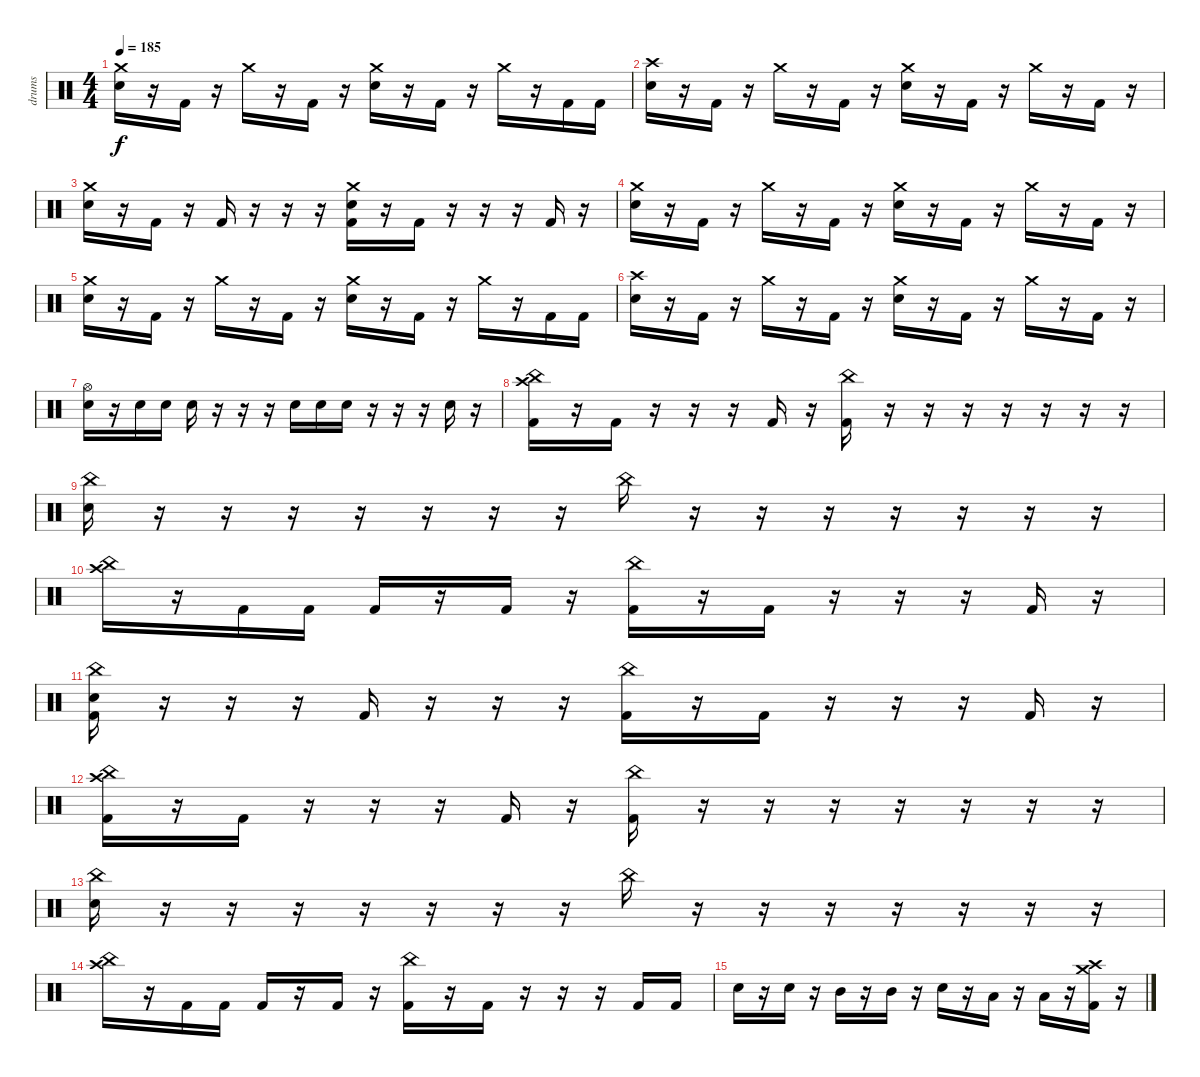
\track ("drums" "drums") {instrument percussion}
\staff {score}
\articulation defaults
\ts (4 4)
\tempo 185
\clef neutral
\ks c
("Crash medium (hit)" "Electric Snare (hit)").16{dy f} r.16 "Kick (hit) 2".16 r.16 "Crash medium (hit)".16 r.16 "Kick (hit) 2".16 r.16 ("Crash medium (hit)" "Electric Snare (hit)").16 r.16 "Kick (hit) 2".16 r.16 "Crash medium (hit)".16 r.16 "Kick (hit) 2".16 "Kick (hit) 2".16 |
("Crash high (hit)" "Electric Snare (hit)").16 r.16 "Kick (hit) 2".16 r.16 "Crash medium (hit)".16 r.16 "Kick (hit) 2".16 r.16 ("Crash medium (hit)" "Electric Snare (hit)").16 r.16 "Kick (hit) 2".16 r.16 "Crash medium (hit)".16 r.16 "Kick (hit) 2".16 r.16 |
("Crash medium (hit)" "Electric Snare (hit)").16 r.16 "Kick (hit) 2".16 r.16 "Kick (hit) 2".16 r.16 r.16 r.16 ("Crash medium (hit)" "Electric Snare (hit)" "Kick (hit) 2").16 r.16 "Kick (hit) 2".16 r.16 r.16 r.16 "Kick (hit) 2".16 r.16 |
("Crash medium (hit)" "Electric Snare (hit)").16 r.16 "Kick (hit) 2".16 r.16 "Crash medium (hit)".16 r.16 "Kick (hit) 2".16 r.16 ("Crash medium (hit)" "Electric Snare (hit)").16 r.16 "Kick (hit) 2".16 r.16 "Crash medium (hit)".16 r.16 "Kick (hit) 2".16 r.16 |
("Crash medium (hit)" "Electric Snare (hit)").16 r.16 "Kick (hit) 2".16 r.16 "Crash medium (hit)".16 r.16 "Kick (hit) 2".16 r.16 ("Crash medium (hit)" "Electric Snare (hit)").16 r.16 "Kick (hit) 2".16 r.16 "Crash medium (hit)".16 r.16 "Kick (hit) 2".16 "Kick (hit) 2".16 |
("Crash high (hit)" "Electric Snare (hit)").16 r.16 "Kick (hit) 2".16 r.16 "Crash medium (hit)".16 r.16 "Kick (hit) 2".16 r.16 ("Crash medium (hit)" "Electric Snare (hit)").16 r.16 "Kick (hit) 2".16 r.16 "Crash medium (hit)".16 r.16 "Kick (hit) 2".16 r.16 |
("Hi-Hat (open)" "Electric Snare (hit)").16 r.16 "Electric Snare (hit)".16 "Electric Snare (hit)".16 "Electric Snare (hit)".16 r.16 r.16 r.16 "Electric Snare (hit)".16 "Electric Snare (hit)".16 "Electric Snare (hit)".16 r.16 r.16 r.16 "Electric Snare (hit)".16 r.16 |
("China (hit)" "Crash high (hit)" "Kick (hit) 2").16 r.16 "Kick (hit) 2".16 r.16 r.16 r.16 "Kick (hit) 2".16 r.16 ("China (hit)" "Kick (hit) 2").16 r.16 r.16 r.16 r.16 r.16 r.16 r.16 |
("China (hit)" "Electric Snare (hit)").16 r.16 r.16 r.16 r.16 r.16 r.16 r.16 "China (hit)".16 r.16 r.16 r.16 r.16 r.16 r.16 r.16 |
("China (hit)" "Crash high (hit)").16 r.16 "Kick (hit) 2".16 "Kick (hit) 2".16 "Kick (hit) 2".16 r.16 "Kick (hit) 2".16 r.16 ("China (hit)" "Kick (hit) 2").16 r.16 "Kick (hit) 2".16 r.16 r.16 r.16 "Kick (hit) 2".16 r.16 |
("China (hit)" "Electric Snare (hit)" "Kick (hit) 2").16 r.16 r.16 r.16 "Kick (hit) 2".16 r.16 r.16 r.16 ("China (hit)" "Kick (hit) 2").16 r.16 "Kick (hit) 2".16 r.16 r.16 r.16 "Kick (hit) 2".16 r.16 |
("China (hit)" "Crash high (hit)" "Kick (hit) 2").16 r.16 "Kick (hit) 2".16 r.16 r.16 r.16 "Kick (hit) 2".16 r.16 ("China (hit)" "Kick (hit) 2").16 r.16 r.16 r.16 r.16 r.16 r.16 r.16 |
("China (hit)" "Electric Snare (hit)").16 r.16 r.16 r.16 r.16 r.16 r.16 r.16 "China (hit)".16 r.16 r.16 r.16 r.16 r.16 r.16 r.16 |
("China (hit)" "Crash high (hit)").16 r.16 "Kick (hit) 2".16 "Kick (hit) 2".16 "Kick (hit) 2".16 r.16 "Kick (hit) 2".16 r.16 ("China (hit)" "Kick (hit) 2").16 r.16 "Kick (hit) 2".16 r.16 r.16 r.16 "Kick (hit) 2".16 "Kick (hit) 2".16 |
"Electric Snare (hit)".16 r.16 "Electric Snare (hit)".16 r.16 "Mid Tom (hit)".16 r.16 "Mid Tom (hit)".16 r.16 "Electric Snare (hit)".16 r.16 "Low Floor Tom (hit)".16 r.16 "Low Floor Tom (hit)".16 r.16 ("Crash medium (hit)" "Crash high (hit)" "Kick (hit) 2").16 r.16
